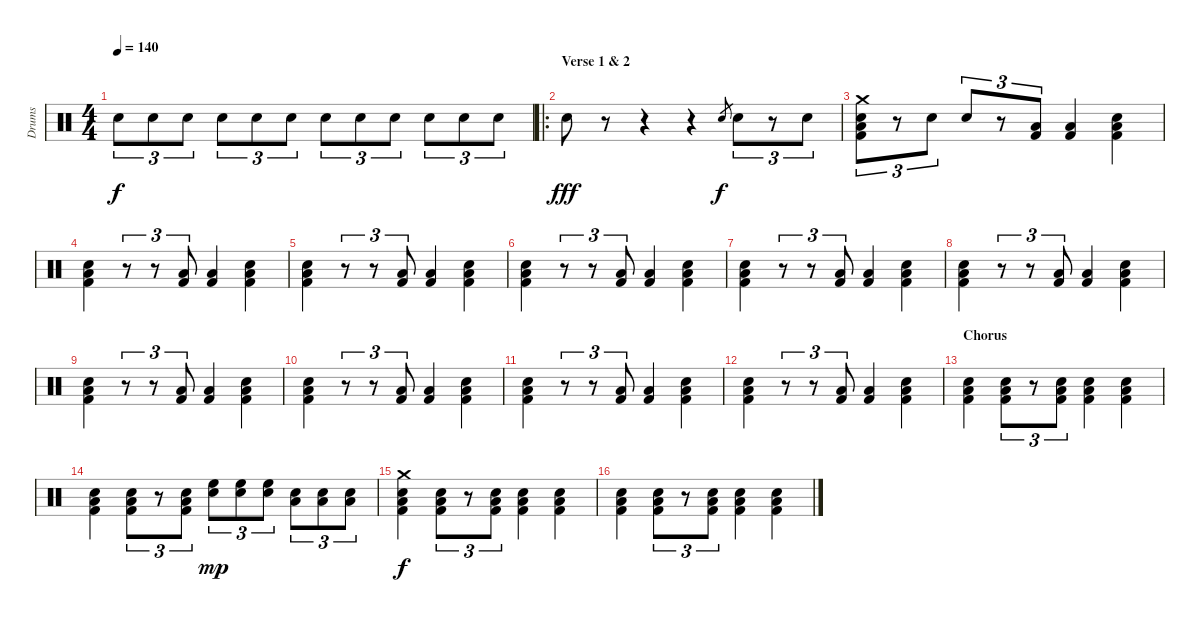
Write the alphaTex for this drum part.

\track ("Drums" "Drums") {instrument percussion}
\staff {score}
\articulation defaults
\ts (4 4)
\tempo 140
\clef neutral
\ks c "Snare (hit) 2".8{tu (3 2) dy f} "Snare (hit) 2".8{tu (3 2)} "Snare (hit) 2".8{tu (3 2)} "Snare (hit) 2".8{tu (3 2)} "Snare (hit) 2".8{tu (3 2)} "Snare (hit) 2".8{tu (3 2)} "Snare (hit) 2".8{tu (3 2)} "Snare (hit) 2".8{tu (3 2)} "Snare (hit) 2".8{tu (3 2)} "Snare (hit) 2".8{tu (3 2)} "Snare (hit) 2".8{tu (3 2)} "Snare (hit) 2".8{tu (3 2)}
|
\ro
\section ("" "Verse 1 & 2")
"Snare (hit) 2".8{dy fff} r.8 r.4 r.4 "Snare (hit) 2".8{gr dy f} "Snare (hit) 2".8{tu (3 2)} r.8{tu (3 2)} "Snare (hit) 2".8{tu (3 2)} |
("Kick (hit) 2" "Snare (hit) 2" "Low Floor Tom (hit)" "Crash medium (hit)").8{tu (3 2)} r.8{tu (3 2)} "Snare (hit) 2".8{tu (3 2)} "Snare (hit) 2".8{tu (3 2)} r.8{tu (3 2)} ("Kick (hit) 2" "Low Floor Tom (hit)").8{tu (3 2)} ("Kick (hit) 2" "Low Floor Tom (hit)").4 ("Kick (hit) 2" "Snare (hit) 2" "Low Floor Tom (hit)").4 |
("Kick (hit) 2" "Snare (hit) 2" "Low Floor Tom (hit)").4 r.8{tu (3 2)} r.8{tu (3 2)} ("Kick (hit) 2" "Low Floor Tom (hit)").8{tu (3 2)} ("Kick (hit) 2" "Low Floor Tom (hit)").4 ("Kick (hit) 2" "Snare (hit) 2" "Low Floor Tom (hit)").4 |
("Kick (hit) 2" "Snare (hit) 2" "Low Floor Tom (hit)").4 r.8{tu (3 2)} r.8{tu (3 2)} ("Kick (hit) 2" "Low Floor Tom (hit)").8{tu (3 2)} ("Kick (hit) 2" "Low Floor Tom (hit)").4 ("Kick (hit) 2" "Snare (hit) 2" "Low Floor Tom (hit)").4 |
("Kick (hit) 2" "Snare (hit) 2" "Low Floor Tom (hit)").4 r.8{tu (3 2)} r.8{tu (3 2)} ("Kick (hit) 2" "Low Floor Tom (hit)").8{tu (3 2)} ("Kick (hit) 2" "Low Floor Tom (hit)").4 ("Kick (hit) 2" "Snare (hit) 2" "Low Floor Tom (hit)").4 |
("Kick (hit) 2" "Snare (hit) 2" "Low Floor Tom (hit)").4 r.8{tu (3 2)} r.8{tu (3 2)} ("Kick (hit) 2" "Low Floor Tom (hit)").8{tu (3 2)} ("Kick (hit) 2" "Low Floor Tom (hit)").4 ("Kick (hit) 2" "Snare (hit) 2" "Low Floor Tom (hit)").4 |
("Kick (hit) 2" "Snare (hit) 2" "Low Floor Tom (hit)").4 r.8{tu (3 2)} r.8{tu (3 2)} ("Kick (hit) 2" "Low Floor Tom (hit)").8{tu (3 2)} ("Kick (hit) 2" "Low Floor Tom (hit)").4 ("Kick (hit) 2" "Snare (hit) 2" "Low Floor Tom (hit)").4 |
("Kick (hit) 2" "Snare (hit) 2" "Low Floor Tom (hit)").4 r.8{tu (3 2)} r.8{tu (3 2)} ("Kick (hit) 2" "Low Floor Tom (hit)").8{tu (3 2)} ("Kick (hit) 2" "Low Floor Tom (hit)").4 ("Kick (hit) 2" "Snare (hit) 2" "Low Floor Tom (hit)").4 |
("Kick (hit) 2" "Snare (hit) 2" "Low Floor Tom (hit)").4 r.8{tu (3 2)} r.8{tu (3 2)} ("Kick (hit) 2" "Low Floor Tom (hit)").8{tu (3 2)} ("Kick (hit) 2" "Low Floor Tom (hit)").4 ("Kick (hit) 2" "Snare (hit) 2" "Low Floor Tom (hit)").4 |
("Kick (hit) 2" "Snare (hit) 2" "Low Floor Tom (hit)").4 r.8{tu (3 2)} r.8{tu (3 2)} ("Kick (hit) 2" "Low Floor Tom (hit)").8{tu (3 2)} ("Kick (hit) 2" "Low Floor Tom (hit)").4 ("Kick (hit) 2" "Snare (hit) 2" "Low Floor Tom (hit)").4 |
("Kick (hit) 2" "Snare (hit) 2" "Low Floor Tom (hit)").4 r.8{tu (3 2)} r.8{tu (3 2)} ("Kick (hit) 2" "Low Floor Tom (hit)").8{tu (3 2)} ("Kick (hit) 2" "Low Floor Tom (hit)").4 ("Kick (hit) 2" "Snare (hit) 2" "Low Floor Tom (hit)").4 |
\section ("" "Chorus")
("Kick (hit) 2" "Snare (hit) 2" "Low Floor Tom (hit)").4 ("Kick (hit) 2" "Snare (hit) 2" "Low Floor Tom (hit)").8{tu (3 2)} r.8{tu (3 2)} ("Kick (hit) 2" "Snare (hit) 2" "Low Floor Tom (hit)").8{tu (3 2)} ("Kick (hit) 2" "Snare (hit) 2" "Low Floor Tom (hit)").4 ("Kick (hit) 2" "Snare (hit) 2" "Low Floor Tom (hit)").4 |
("Kick (hit) 2" "Snare (hit) 2" "Low Floor Tom (hit)").4 ("Kick (hit) 2" "Snare (hit) 2" "Low Floor Tom (hit)").8{tu (3 2)} r.8{tu (3 2)} ("Kick (hit) 2" "Snare (hit) 2" "Low Floor Tom (hit)").8{tu (3 2)} ("Snare (hit) 2" "High Floor Tom (hit)").8{tu (3 2) dy mp} ("Snare (hit) 2" "High Floor Tom (hit)").8{tu (3 2)} ("Snare (hit) 2" "High Floor Tom (hit)").8{tu (3 2)} ("Snare (hit) 2" "Low Tom (hit)").8{tu (3 2)} ("Snare (hit) 2" "Low Tom (hit)").8{tu (3 2)} ("Snare (hit) 2" "Low Tom (hit)").8{tu (3 2)} |
("Kick (hit) 2" "Snare (hit) 2" "Low Floor Tom (hit)" "Crash medium (hit)").4{dy f} ("Kick (hit) 2" "Snare (hit) 2" "Low Floor Tom (hit)").8{tu (3 2)} r.8{tu (3 2)} ("Kick (hit) 2" "Snare (hit) 2" "Low Floor Tom (hit)").8{tu (3 2)} ("Kick (hit) 2" "Snare (hit) 2" "Low Floor Tom (hit)").4 ("Kick (hit) 2" "Snare (hit) 2" "Low Floor Tom (hit)").4 |
("Kick (hit) 2" "Snare (hit) 2" "Low Floor Tom (hit)").4 ("Kick (hit) 2" "Snare (hit) 2" "Low Floor Tom (hit)").8{tu (3 2)} r.8{tu (3 2)} ("Kick (hit) 2" "Snare (hit) 2" "Low Floor Tom (hit)").8{tu (3 2)} ("Kick (hit) 2" "Snare (hit) 2" "Low Floor Tom (hit)").4 ("Kick (hit) 2" "Snare (hit) 2" "Low Floor Tom (hit)").4
